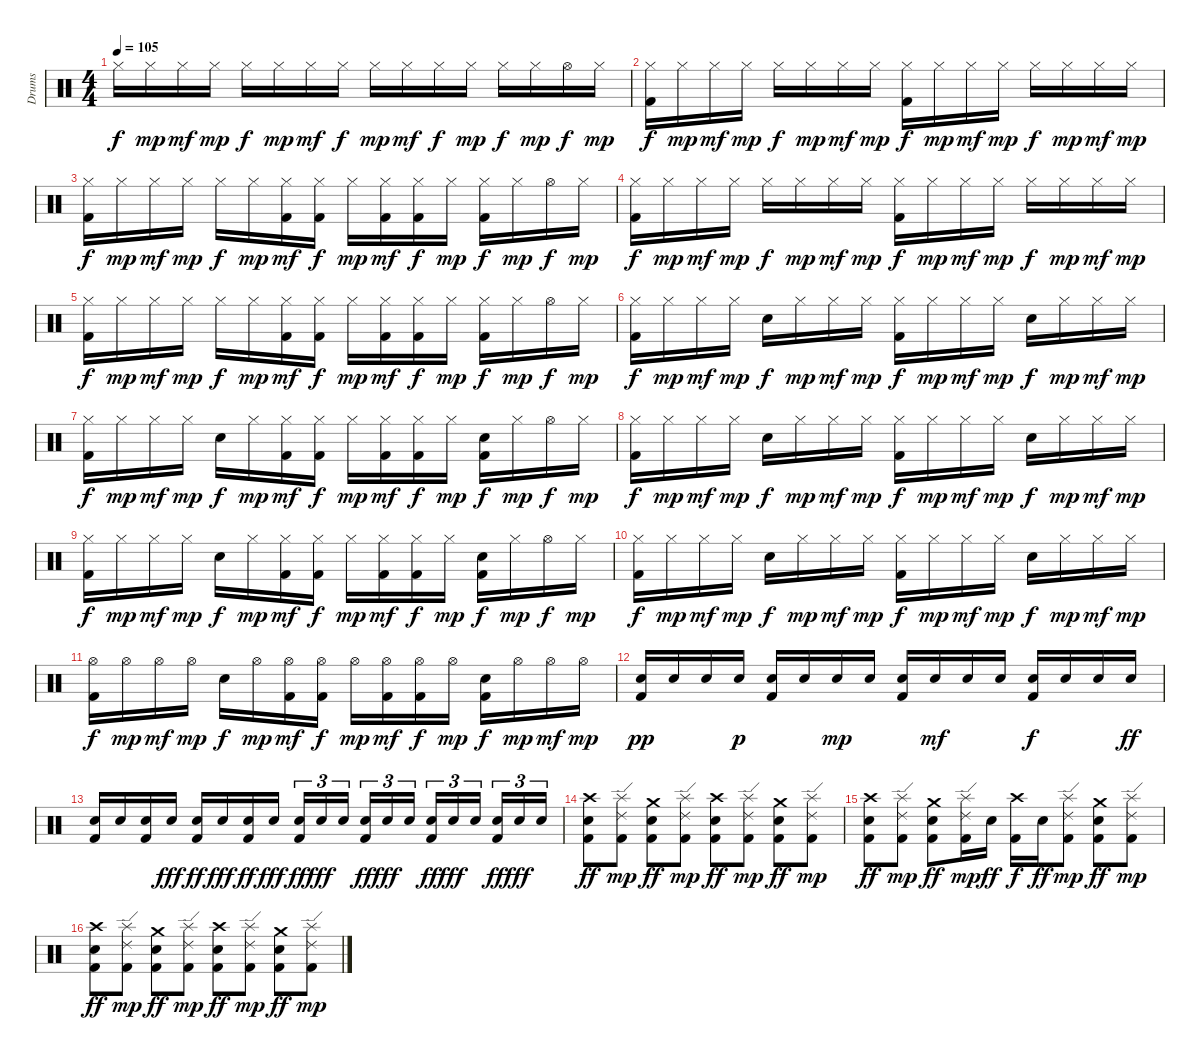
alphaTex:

\track ("Drums" "Drums") {instrument percussion}
\staff {score}
\articulation defaults
\ts (4 4)
\tempo 105
\clef neutral
\ks c "Hi-Hat (closed)".16{dy f} "Hi-Hat (closed)".16{dy mp} "Hi-Hat (closed)".16{dy mf} "Hi-Hat (closed)".16{dy mp} "Hi-Hat (closed)".16{dy f} "Hi-Hat (closed)".16{dy mp} "Hi-Hat (closed)".16{dy mf} "Hi-Hat (closed)".16{dy f} "Hi-Hat (closed)".16{dy mp} "Hi-Hat (closed)".16{dy mf} "Hi-Hat (closed)".16{dy f} "Hi-Hat (closed)".16{dy mp} "Hi-Hat (closed)".16{dy f} "Hi-Hat (closed)".16{dy mp} "Hi-Hat (open)".16{dy f} "Hi-Hat (closed)".16{dy mp}
|
("Hi-Hat (closed)" "Kick (hit) 2").16{dy f} "Hi-Hat (closed)".16{dy mp} "Hi-Hat (closed)".16{dy mf} "Hi-Hat (closed)".16{dy mp} "Hi-Hat (closed)".16{dy f} "Hi-Hat (closed)".16{dy mp} "Hi-Hat (closed)".16{dy mf} "Hi-Hat (closed)".16{dy mp} ("Hi-Hat (closed)" "Kick (hit) 2").16{dy f} "Hi-Hat (closed)".16{dy mp} "Hi-Hat (closed)".16{dy mf} "Hi-Hat (closed)".16{dy mp} "Hi-Hat (closed)".16{dy f} "Hi-Hat (closed)".16{dy mp} "Hi-Hat (closed)".16{dy mf} "Hi-Hat (closed)".16{dy mp} |
("Hi-Hat (closed)" "Kick (hit) 2").16{dy f} "Hi-Hat (closed)".16{dy mp} "Hi-Hat (closed)".16{dy mf} "Hi-Hat (closed)".16{dy mp} "Hi-Hat (closed)".16{dy f} "Hi-Hat (closed)".16{dy mp} ("Hi-Hat (closed)" "Kick (hit) 2").16{dy mf} ("Hi-Hat (closed)" "Kick (hit) 2").16{dy f} "Hi-Hat (closed)".16{dy mp} ("Hi-Hat (closed)" "Kick (hit) 2").16{dy mf} ("Hi-Hat (closed)" "Kick (hit) 2").16{dy f} "Hi-Hat (closed)".16{dy mp} ("Hi-Hat (closed)" "Kick (hit) 2").16{dy f} "Hi-Hat (closed)".16{dy mp} "Hi-Hat (open)".16{dy f} "Hi-Hat (closed)".16{dy mp} |
("Hi-Hat (closed)" "Kick (hit) 2").16{dy f} "Hi-Hat (closed)".16{dy mp} "Hi-Hat (closed)".16{dy mf} "Hi-Hat (closed)".16{dy mp} "Hi-Hat (closed)".16{dy f} "Hi-Hat (closed)".16{dy mp} "Hi-Hat (closed)".16{dy mf} "Hi-Hat (closed)".16{dy mp} ("Hi-Hat (closed)" "Kick (hit) 2").16{dy f} "Hi-Hat (closed)".16{dy mp} "Hi-Hat (closed)".16{dy mf} "Hi-Hat (closed)".16{dy mp} "Hi-Hat (closed)".16{dy f} "Hi-Hat (closed)".16{dy mp} "Hi-Hat (closed)".16{dy mf} "Hi-Hat (closed)".16{dy mp} |
("Hi-Hat (closed)" "Kick (hit) 2").16{dy f} "Hi-Hat (closed)".16{dy mp} "Hi-Hat (closed)".16{dy mf} "Hi-Hat (closed)".16{dy mp} "Hi-Hat (closed)".16{dy f} "Hi-Hat (closed)".16{dy mp} ("Hi-Hat (closed)" "Kick (hit) 2").16{dy mf} ("Hi-Hat (closed)" "Kick (hit) 2").16{dy f} "Hi-Hat (closed)".16{dy mp} ("Hi-Hat (closed)" "Kick (hit) 2").16{dy mf} ("Hi-Hat (closed)" "Kick (hit) 2").16{dy f} "Hi-Hat (closed)".16{dy mp} ("Hi-Hat (closed)" "Kick (hit) 2").16{dy f} "Hi-Hat (closed)".16{dy mp} "Hi-Hat (open)".16{dy f} "Hi-Hat (closed)".16{dy mp} |
("Hi-Hat (closed)" "Kick (hit) 2").16{dy f} "Hi-Hat (closed)".16{dy mp} "Hi-Hat (closed)".16{dy mf} "Hi-Hat (closed)".16{dy mp} "Snare (hit) 2".16{dy f} "Hi-Hat (closed)".16{dy mp} "Hi-Hat (closed)".16{dy mf} "Hi-Hat (closed)".16{dy mp} ("Hi-Hat (closed)" "Kick (hit) 2").16{dy f} "Hi-Hat (closed)".16{dy mp} "Hi-Hat (closed)".16{dy mf} "Hi-Hat (closed)".16{dy mp} "Snare (hit) 2".16{dy f} "Hi-Hat (closed)".16{dy mp} "Hi-Hat (closed)".16{dy mf} "Hi-Hat (closed)".16{dy mp} |
("Hi-Hat (closed)" "Kick (hit) 2").16{dy f} "Hi-Hat (closed)".16{dy mp} "Hi-Hat (closed)".16{dy mf} "Hi-Hat (closed)".16{dy mp} "Snare (hit) 2".16{dy f} "Hi-Hat (closed)".16{dy mp} ("Hi-Hat (closed)" "Kick (hit) 2").16{dy mf} ("Hi-Hat (closed)" "Kick (hit) 2").16{dy f} "Hi-Hat (closed)".16{dy mp} ("Hi-Hat (closed)" "Kick (hit) 2").16{dy mf} ("Hi-Hat (closed)" "Kick (hit) 2").16{dy f} "Hi-Hat (closed)".16{dy mp} ("Snare (hit) 2" "Kick (hit) 2").16{dy f} "Hi-Hat (closed)".16{dy mp} "Hi-Hat (open)".16{dy f} "Hi-Hat (closed)".16{dy mp} |
("Hi-Hat (closed)" "Kick (hit) 2").16{dy f} "Hi-Hat (closed)".16{dy mp} "Hi-Hat (closed)".16{dy mf} "Hi-Hat (closed)".16{dy mp} "Snare (hit) 2".16{dy f} "Hi-Hat (closed)".16{dy mp} "Hi-Hat (closed)".16{dy mf} "Hi-Hat (closed)".16{dy mp} ("Hi-Hat (closed)" "Kick (hit) 2").16{dy f} "Hi-Hat (closed)".16{dy mp} "Hi-Hat (closed)".16{dy mf} "Hi-Hat (closed)".16{dy mp} "Snare (hit) 2".16{dy f} "Hi-Hat (closed)".16{dy mp} "Hi-Hat (closed)".16{dy mf} "Hi-Hat (closed)".16{dy mp} |
("Hi-Hat (closed)" "Kick (hit) 2").16{dy f} "Hi-Hat (closed)".16{dy mp} "Hi-Hat (closed)".16{dy mf} "Hi-Hat (closed)".16{dy mp} "Snare (hit) 2".16{dy f} "Hi-Hat (closed)".16{dy mp} ("Hi-Hat (closed)" "Kick (hit) 2").16{dy mf} ("Hi-Hat (closed)" "Kick (hit) 2").16{dy f} "Hi-Hat (closed)".16{dy mp} ("Hi-Hat (closed)" "Kick (hit) 2").16{dy mf} ("Hi-Hat (closed)" "Kick (hit) 2").16{dy f} "Hi-Hat (closed)".16{dy mp} ("Snare (hit) 2" "Kick (hit) 2").16{dy f} "Hi-Hat (closed)".16{dy mp} "Hi-Hat (open)".16{dy f} "Hi-Hat (closed)".16{dy mp} |
("Hi-Hat (closed)" "Kick (hit) 2").16{dy f} "Hi-Hat (closed)".16{dy mp} "Hi-Hat (closed)".16{dy mf} "Hi-Hat (closed)".16{dy mp} "Snare (hit) 2".16{dy f} "Hi-Hat (closed)".16{dy mp} "Hi-Hat (closed)".16{dy mf} "Hi-Hat (closed)".16{dy mp} ("Hi-Hat (closed)" "Kick (hit) 2").16{dy f} "Hi-Hat (closed)".16{dy mp} "Hi-Hat (closed)".16{dy mf} "Hi-Hat (closed)".16{dy mp} "Snare (hit) 2".16{dy f} "Hi-Hat (closed)".16{dy mp} "Hi-Hat (closed)".16{dy mf} "Hi-Hat (closed)".16{dy mp} |
("Hi-Hat (open)" "Kick (hit) 2").16{dy f} "Hi-Hat (open)".16{dy mp} "Hi-Hat (open)".16{dy mf} "Hi-Hat (open)".16{dy mp} "Snare (hit) 2".16{dy f} "Hi-Hat (open)".16{dy mp} ("Hi-Hat (open)" "Kick (hit) 2").16{dy mf} ("Hi-Hat (open)" "Kick (hit) 2").16{dy f} "Hi-Hat (open)".16{dy mp} ("Hi-Hat (open)" "Kick (hit) 2").16{dy mf} ("Hi-Hat (open)" "Kick (hit) 2").16{dy f} "Hi-Hat (open)".16{dy mp} ("Snare (hit) 2" "Kick (hit) 2").16{dy f} "Hi-Hat (open)".16{dy mp} "Hi-Hat (open)".16{dy mf} "Hi-Hat (open)".16{dy mp} |
("Snare (hit) 2" "Kick (hit) 2").16{dy pp} "Snare (hit) 2".16 "Snare (hit) 2".16 "Snare (hit) 2".16{dy p} ("Snare (hit) 2" "Kick (hit) 2").16 "Snare (hit) 2".16 "Snare (hit) 2".16{dy mp} "Snare (hit) 2".16 ("Snare (hit) 2" "Kick (hit) 2").16 "Snare (hit) 2".16{dy mf} "Snare (hit) 2".16 "Snare (hit) 2".16 ("Snare (hit) 2" "Kick (hit) 2").16{dy f} "Snare (hit) 2".16 "Snare (hit) 2".16 "Snare (hit) 2".16{dy ff} |
("Snare (hit) 2" "Kick (hit) 2").16 "Snare (hit) 2".16 ("Snare (hit) 2" "Kick (hit) 2").16 "Snare (hit) 2".16{dy fff} ("Snare (hit) 2" "Kick (hit) 2").16{dy ff} "Snare (hit) 2".16{dy fff} ("Snare (hit) 2" "Kick (hit) 2").16{dy ff} "Snare (hit) 2".16{dy fff} ("Snare (hit) 2" "Kick (hit) 2").16{tu (3 2) dy ff} "Snare (hit) 2".16{tu (3 2) dy fff} "Snare (hit) 2".16{tu (3 2)} ("Snare (hit) 2" "Kick (hit) 2").16{tu (3 2) dy ff} "Snare (hit) 2".16{tu (3 2) dy fff} "Snare (hit) 2".16{tu (3 2)} ("Snare (hit) 2" "Kick (hit) 2").16{tu (3 2) dy ff} "Snare (hit) 2".16{tu (3 2) dy fff} "Snare (hit) 2".16{tu (3 2)} ("Snare (hit) 2" "Kick (hit) 2").16{tu (3 2) dy ff} "Snare (hit) 2".16{tu (3 2) dy fff} "Snare (hit) 2".16{tu (3 2)} |
("Crash high (hit)" "Snare (hit) 2" "Kick (hit) 2").8{dy ff} ("Splash (hit)" "Ride (edge) 2" "Kick (hit) 2").8{dy mp} ("Crash medium (hit)" "Snare (hit) 2" "Kick (hit) 2").8{dy ff} ("Splash (hit)" "Ride (edge) 2" "Kick (hit) 2").8{dy mp} ("Crash high (hit)" "Snare (hit) 2" "Kick (hit) 2").8{dy ff} ("Splash (hit)" "Ride (edge) 2" "Kick (hit) 2").8{dy mp} ("Crash medium (hit)" "Snare (hit) 2" "Kick (hit) 2").8{dy ff} ("Splash (hit)" "Ride (edge) 2" "Kick (hit) 2").8{dy mp} |
("Crash high (hit)" "Snare (hit) 2" "Kick (hit) 2").8{dy ff} ("Splash (hit)" "Ride (edge) 2" "Kick (hit) 2").8{dy mp} ("Crash medium (hit)" "Snare (hit) 2" "Kick (hit) 2").8{dy ff} ("Splash (hit)" "Ride (edge) 2" "Kick (hit) 2").16{dy mp} "Snare (hit) 2".16{dy ff} ("Crash high (hit)" "Kick (hit) 2").16{dy f} "Snare (hit) 2".16{dy ff} ("Splash (hit)" "Ride (edge) 2" "Kick (hit) 2").8{dy mp} ("Crash medium (hit)" "Snare (hit) 2" "Kick (hit) 2").8{dy ff} ("Splash (hit)" "Ride (edge) 2" "Kick (hit) 2").8{dy mp} |
("Crash high (hit)" "Snare (hit) 2" "Kick (hit) 2").8{dy ff} ("Splash (hit)" "Ride (edge) 2" "Kick (hit) 2").8{dy mp} ("Crash medium (hit)" "Snare (hit) 2" "Kick (hit) 2").8{dy ff} ("Splash (hit)" "Ride (edge) 2" "Kick (hit) 2").8{dy mp} ("Crash high (hit)" "Snare (hit) 2" "Kick (hit) 2").8{dy ff} ("Splash (hit)" "Ride (edge) 2" "Kick (hit) 2").8{dy mp} ("Crash medium (hit)" "Snare (hit) 2" "Kick (hit) 2").8{dy ff} ("Splash (hit)" "Ride (edge) 2" "Kick (hit) 2").8{dy mp}
